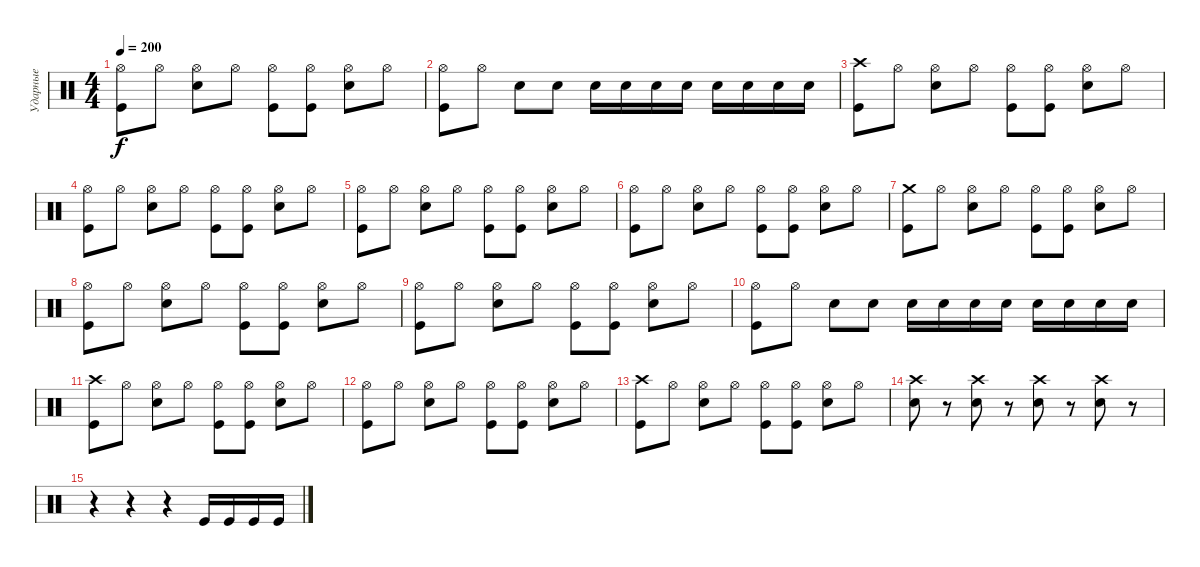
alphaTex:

\track ("Ударные" "Ударные") {instrument percussion}
\staff {score}
\articulation defaults
\ts (4 4)
\tempo 200
\clef neutral
\ks c
("Hi-Hat (open)" "Kick (hit)").8{dy f} "Hi-Hat (open)".8 ("Hi-Hat (open)" "Snare (hit) 2").8 "Hi-Hat (open)".8 ("Hi-Hat (open)" "Kick (hit)").8 ("Hi-Hat (open)" "Kick (hit)").8 ("Hi-Hat (open)" "Snare (hit) 2").8 "Hi-Hat (open)".8 |
("Hi-Hat (open)" "Kick (hit)").8 "Hi-Hat (open)".8 "Snare (hit) 2".8 "Snare (hit) 2".8 "Snare (hit) 2".16 "Snare (hit) 2".16 "Snare (hit) 2".16 "Snare (hit) 2".16 "Snare (hit) 2".16 "Snare (hit) 2".16 "Snare (hit) 2".16 "Snare (hit) 2".16 |
("Crash high (hit)" "Kick (hit)").8 "Hi-Hat (open)".8 ("Hi-Hat (open)" "Snare (hit) 2").8 "Hi-Hat (open)".8 ("Hi-Hat (open)" "Kick (hit)").8 ("Hi-Hat (open)" "Kick (hit)").8 ("Hi-Hat (open)" "Snare (hit) 2").8 "Hi-Hat (open)".8 |
("Hi-Hat (open)" "Kick (hit)").8 "Hi-Hat (open)".8 ("Hi-Hat (open)" "Snare (hit) 2").8 "Hi-Hat (open)".8 ("Hi-Hat (open)" "Kick (hit)").8 ("Hi-Hat (open)" "Kick (hit)").8 ("Hi-Hat (open)" "Snare (hit) 2").8 "Hi-Hat (open)".8 |
("Hi-Hat (open)" "Kick (hit)").8 "Hi-Hat (open)".8 ("Hi-Hat (open)" "Snare (hit) 2").8 "Hi-Hat (open)".8 ("Hi-Hat (open)" "Kick (hit)").8 ("Hi-Hat (open)" "Kick (hit)").8 ("Hi-Hat (open)" "Snare (hit) 2").8 "Hi-Hat (open)".8 |
("Hi-Hat (open)" "Kick (hit)").8 "Hi-Hat (open)".8 ("Hi-Hat (open)" "Snare (hit) 2").8 "Hi-Hat (open)".8 ("Hi-Hat (open)" "Kick (hit)").8 ("Hi-Hat (open)" "Kick (hit)").8 ("Hi-Hat (open)" "Snare (hit) 2").8 "Hi-Hat (open)".8 |
("Crash medium (hit)" "Kick (hit)").8 "Hi-Hat (open)".8 ("Hi-Hat (open)" "Snare (hit) 2").8 "Hi-Hat (open)".8 ("Hi-Hat (open)" "Kick (hit)").8 ("Hi-Hat (open)" "Kick (hit)").8 ("Hi-Hat (open)" "Snare (hit) 2").8 "Hi-Hat (open)".8 |
("Hi-Hat (open)" "Kick (hit)").8 "Hi-Hat (open)".8 ("Hi-Hat (open)" "Snare (hit) 2").8 "Hi-Hat (open)".8 ("Hi-Hat (open)" "Kick (hit)").8 ("Hi-Hat (open)" "Kick (hit)").8 ("Hi-Hat (open)" "Snare (hit) 2").8 "Hi-Hat (open)".8 |
("Hi-Hat (open)" "Kick (hit)").8 "Hi-Hat (open)".8 ("Hi-Hat (open)" "Snare (hit) 2").8 "Hi-Hat (open)".8 ("Hi-Hat (open)" "Kick (hit)").8 ("Hi-Hat (open)" "Kick (hit)").8 ("Hi-Hat (open)" "Snare (hit) 2").8 "Hi-Hat (open)".8 |
("Hi-Hat (open)" "Kick (hit)").8 "Hi-Hat (open)".8 "Snare (hit) 2".8 "Snare (hit) 2".8 "Snare (hit) 2".16 "Snare (hit) 2".16 "Snare (hit) 2".16 "Snare (hit) 2".16 "Snare (hit) 2".16 "Snare (hit) 2".16 "Snare (hit) 2".16 "Snare (hit) 2".16 |
("Crash high (hit)" "Kick (hit)").8 "Hi-Hat (open)".8 ("Hi-Hat (open)" "Snare (hit) 2").8 "Hi-Hat (open)".8 ("Hi-Hat (open)" "Kick (hit)").8 ("Hi-Hat (open)" "Kick (hit)").8 ("Hi-Hat (open)" "Snare (hit) 2").8 "Hi-Hat (open)".8 |
("Hi-Hat (open)" "Kick (hit)").8 "Hi-Hat (open)".8 ("Hi-Hat (open)" "Snare (hit) 2").8 "Hi-Hat (open)".8 ("Hi-Hat (open)" "Kick (hit)").8 ("Hi-Hat (open)" "Kick (hit)").8 ("Hi-Hat (open)" "Snare (hit) 2").8 "Hi-Hat (open)".8 |
("Crash high (hit)" "Kick (hit)").8 "Hi-Hat (open)".8 ("Hi-Hat (open)" "Snare (hit) 2").8 "Hi-Hat (open)".8 ("Hi-Hat (open)" "Kick (hit)").8 ("Hi-Hat (open)" "Kick (hit)").8 ("Hi-Hat (open)" "Snare (hit) 2").8 "Hi-Hat (open)".8 |
("Crash high (hit)" "Snare (hit) 2").8 r.8 ("Crash high (hit)" "Snare (hit) 2").8 r.8 ("Crash high (hit)" "Snare (hit) 2").8 r.8 ("Crash high (hit)" "Snare (hit) 2").8 r.8 |
r.4 r.4 r.4 "Kick (hit)".16 "Kick (hit)".16 "Kick (hit)".16 "Kick (hit)".16
